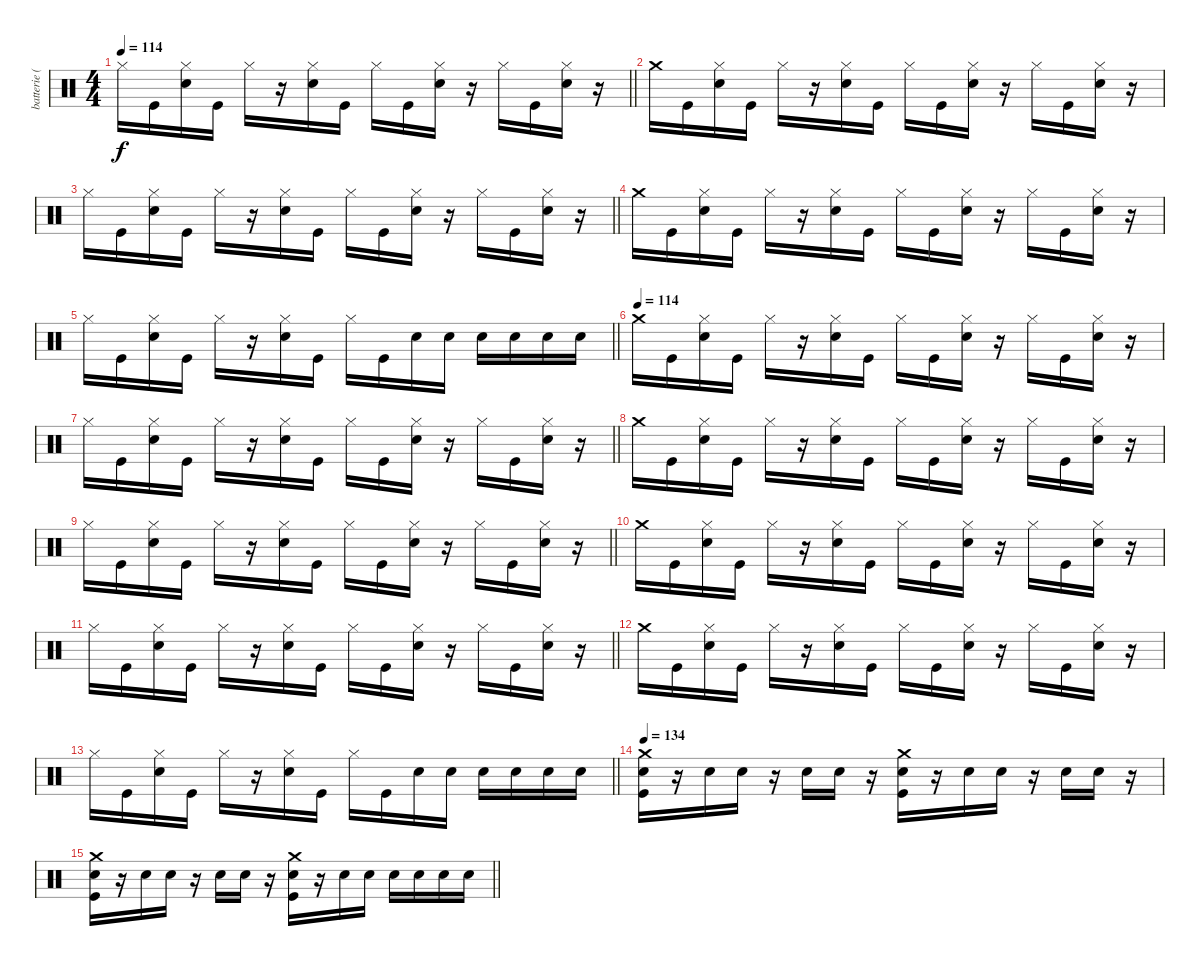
\track ("batterie ( Mathieu )" "batterie (") {instrument percussion}
\staff {score}
\articulation defaults
\ts (4 4)
\tempo 114
\clef neutral
\barLineRight lightlight
\ks c "Hi-Hat (closed)".16{dy f} "Kick (hit)".16
("Hi-Hat (closed)" "Snare (hit) 2").16 "Kick (hit)".16 "Hi-Hat (closed)".16 r.16 ("Hi-Hat (closed)" "Snare (hit) 2").16 "Kick (hit)".16 "Hi-Hat (closed)".16 "Kick (hit)".16 ("Hi-Hat (closed)" "Snare (hit) 2").16 r.16 "Hi-Hat (closed)".16 "Kick (hit)".16 ("Hi-Hat (closed)" "Snare (hit) 2").16 r.16 |
"Crash medium (hit)".16 "Kick (hit)".16 ("Hi-Hat (closed)" "Snare (hit) 2").16 "Kick (hit)".16 "Hi-Hat (closed)".16 r.16 ("Hi-Hat (closed)" "Snare (hit) 2").16 "Kick (hit)".16 "Hi-Hat (closed)".16 "Kick (hit)".16 ("Hi-Hat (closed)" "Snare (hit) 2").16 r.16 "Hi-Hat (closed)".16 "Kick (hit)".16 ("Hi-Hat (closed)" "Snare (hit) 2").16 r.16 |
\barLineRight lightlight "Hi-Hat (closed)".16 "Kick (hit)".16
("Hi-Hat (closed)" "Snare (hit) 2").16 "Kick (hit)".16 "Hi-Hat (closed)".16 r.16 ("Hi-Hat (closed)" "Snare (hit) 2").16 "Kick (hit)".16 "Hi-Hat (closed)".16 "Kick (hit)".16 ("Hi-Hat (closed)" "Snare (hit) 2").16 r.16 "Hi-Hat (closed)".16 "Kick (hit)".16 ("Hi-Hat (closed)" "Snare (hit) 2").16 r.16 |
"Crash medium (hit)".16 "Kick (hit)".16 ("Hi-Hat (closed)" "Snare (hit) 2").16 "Kick (hit)".16 "Hi-Hat (closed)".16 r.16 ("Hi-Hat (closed)" "Snare (hit) 2").16 "Kick (hit)".16 "Hi-Hat (closed)".16 "Kick (hit)".16 ("Hi-Hat (closed)" "Snare (hit) 2").16 r.16 "Hi-Hat (closed)".16 "Kick (hit)".16 ("Hi-Hat (closed)" "Snare (hit) 2").16 r.16 |
\barLineRight lightlight "Hi-Hat (closed)".16 "Kick (hit)".16
("Hi-Hat (closed)" "Snare (hit) 2").16 "Kick (hit)".16 "Hi-Hat (closed)".16 r.16 ("Hi-Hat (closed)" "Snare (hit) 2").16 "Kick (hit)".16 "Hi-Hat (closed)".16 "Kick (hit)".16 "Snare (hit) 2".16 "Snare (hit) 2".16 "Snare (hit) 2".16 "Snare (hit) 2".16 "Snare (hit) 2".16 "Snare (hit) 2".16 |
\tempo (114)
"Crash medium (hit)".16 "Kick (hit)".16 ("Hi-Hat (closed)" "Snare (hit) 2").16 "Kick (hit)".16 "Hi-Hat (closed)".16 r.16 ("Hi-Hat (closed)" "Snare (hit) 2").16 "Kick (hit)".16 "Hi-Hat (closed)".16 "Kick (hit)".16 ("Hi-Hat (closed)" "Snare (hit) 2").16 r.16 "Hi-Hat (closed)".16 "Kick (hit)".16 ("Hi-Hat (closed)" "Snare (hit) 2").16 r.16 |
\barLineRight lightlight "Hi-Hat (closed)".16 "Kick (hit)".16
("Hi-Hat (closed)" "Snare (hit) 2").16 "Kick (hit)".16 "Hi-Hat (closed)".16 r.16 ("Hi-Hat (closed)" "Snare (hit) 2").16 "Kick (hit)".16 "Hi-Hat (closed)".16 "Kick (hit)".16 ("Hi-Hat (closed)" "Snare (hit) 2").16 r.16 "Hi-Hat (closed)".16 "Kick (hit)".16 ("Hi-Hat (closed)" "Snare (hit) 2").16 r.16 |
"Crash medium (hit)".16 "Kick (hit)".16 ("Hi-Hat (closed)" "Snare (hit) 2").16 "Kick (hit)".16 "Hi-Hat (closed)".16 r.16 ("Hi-Hat (closed)" "Snare (hit) 2").16 "Kick (hit)".16 "Hi-Hat (closed)".16 "Kick (hit)".16 ("Hi-Hat (closed)" "Snare (hit) 2").16 r.16 "Hi-Hat (closed)".16 "Kick (hit)".16 ("Hi-Hat (closed)" "Snare (hit) 2").16 r.16 |
\barLineRight lightlight "Hi-Hat (closed)".16 "Kick (hit)".16
("Hi-Hat (closed)" "Snare (hit) 2").16 "Kick (hit)".16 "Hi-Hat (closed)".16 r.16 ("Hi-Hat (closed)" "Snare (hit) 2").16 "Kick (hit)".16 "Hi-Hat (closed)".16 "Kick (hit)".16 ("Hi-Hat (closed)" "Snare (hit) 2").16 r.16 "Hi-Hat (closed)".16 "Kick (hit)".16 ("Hi-Hat (closed)" "Snare (hit) 2").16 r.16 |
"Crash medium (hit)".16 "Kick (hit)".16 ("Hi-Hat (closed)" "Snare (hit) 2").16 "Kick (hit)".16 "Hi-Hat (closed)".16 r.16 ("Hi-Hat (closed)" "Snare (hit) 2").16 "Kick (hit)".16 "Hi-Hat (closed)".16 "Kick (hit)".16 ("Hi-Hat (closed)" "Snare (hit) 2").16 r.16 "Hi-Hat (closed)".16 "Kick (hit)".16 ("Hi-Hat (closed)" "Snare (hit) 2").16 r.16 |
\barLineRight lightlight "Hi-Hat (closed)".16 "Kick (hit)".16
("Hi-Hat (closed)" "Snare (hit) 2").16 "Kick (hit)".16 "Hi-Hat (closed)".16 r.16 ("Hi-Hat (closed)" "Snare (hit) 2").16 "Kick (hit)".16 "Hi-Hat (closed)".16 "Kick (hit)".16 ("Hi-Hat (closed)" "Snare (hit) 2").16 r.16 "Hi-Hat (closed)".16 "Kick (hit)".16 ("Hi-Hat (closed)" "Snare (hit) 2").16 r.16 |
"Crash medium (hit)".16 "Kick (hit)".16 ("Hi-Hat (closed)" "Snare (hit) 2").16 "Kick (hit)".16 "Hi-Hat (closed)".16 r.16 ("Hi-Hat (closed)" "Snare (hit) 2").16 "Kick (hit)".16 "Hi-Hat (closed)".16 "Kick (hit)".16 ("Hi-Hat (closed)" "Snare (hit) 2").16 r.16 "Hi-Hat (closed)".16 "Kick (hit)".16 ("Hi-Hat (closed)" "Snare (hit) 2").16 r.16 |
\barLineRight lightlight "Hi-Hat (closed)".16 "Kick (hit)".16
("Hi-Hat (closed)" "Snare (hit) 2").16 "Kick (hit)".16 "Hi-Hat (closed)".16 r.16 ("Hi-Hat (closed)" "Snare (hit) 2").16 "Kick (hit)".16 "Hi-Hat (closed)".16 "Kick (hit)".16 "Snare (hit) 2".16 "Snare (hit) 2".16 "Snare (hit) 2".16 "Snare (hit) 2".16 "Snare (hit) 2".16 "Snare (hit) 2".16 |
\tempo 134
("Crash medium (hit)" "Snare (hit) 2" "Kick (hit)").16 r.16 "Snare (hit) 2".16 "Snare (hit) 2".16 r.16 "Snare (hit) 2".16 "Snare (hit) 2".16 r.16 ("Crash medium (hit)" "Snare (hit) 2" "Kick (hit)").16 r.16 "Snare (hit) 2".16 "Snare (hit) 2".16 r.16 "Snare (hit) 2".16 "Snare (hit) 2".16 r.16 |
\barLineRight lightlight
("Crash medium (hit)" "Snare (hit) 2" "Kick (hit)").16 r.16 "Snare (hit) 2".16 "Snare (hit) 2".16 r.16 "Snare (hit) 2".16 "Snare (hit) 2".16 r.16 ("Crash medium (hit)" "Snare (hit) 2" "Kick (hit)").16 r.16 "Snare (hit) 2".16 "Snare (hit) 2".16 "Snare (hit) 2".16 "Snare (hit) 2".16 "Snare (hit) 2".16 "Snare (hit) 2".16
